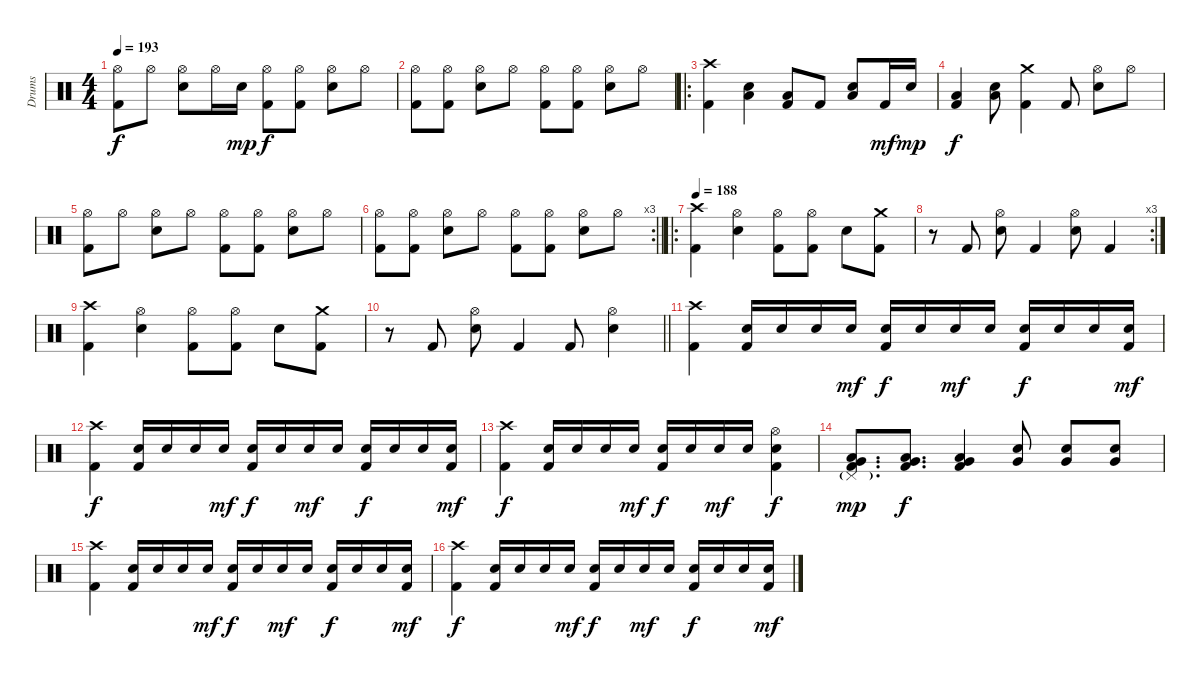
\track ("Drums" "Drums") {instrument percussion}
\staff {score}
\articulation defaults
\ts (4 4)
\tempo 193
\clef neutral
\ks c
("Hi-Hat (open)" "Kick (hit) 2").8{dy f} "Hi-Hat (open)".8 ("Hi-Hat (open)" "Electric Snare (hit)").8 "Hi-Hat (open)".16 "Electric Snare (hit)".16{dy mp} ("Hi-Hat (open)" "Kick (hit) 2").8{dy f} ("Hi-Hat (open)" "Kick (hit) 2").8 ("Hi-Hat (open)" "Electric Snare (hit)").8 "Hi-Hat (open)".8 |
("Hi-Hat (open)" "Kick (hit) 2").8 ("Hi-Hat (open)" "Kick (hit) 2").8 ("Hi-Hat (open)" "Electric Snare (hit)").8 "Hi-Hat (open)".8 ("Hi-Hat (open)" "Kick (hit) 2").8 ("Hi-Hat (open)" "Kick (hit) 2").8 ("Hi-Hat (open)" "Electric Snare (hit)").8 "Hi-Hat (open)".8 |
\ro
("Crash high (hit)" "Kick (hit) 2").4 ("Electric Snare (hit)" "Low Floor Tom (hit)").4 ("Low Floor Tom (hit)" "Kick (hit) 2").8 "Kick (hit) 2".8 ("Electric Snare (hit)" "Low Floor Tom (hit)").8 "Kick (hit) 2".16{dy mf} "Electric Snare (hit)".16{dy mp} |
("Low Floor Tom (hit)" "Kick (hit) 2").4{dy f} ("Electric Snare (hit)" "Low Floor Tom (hit)").8 ("Crash medium (hit)" "Kick (hit) 2").4 "Kick (hit) 2".8 ("Hi-Hat (open)" "Electric Snare (hit)").8 "Hi-Hat (open)".8 |
("Hi-Hat (open)" "Kick (hit) 2").8 "Hi-Hat (open)".8 ("Hi-Hat (open)" "Electric Snare (hit)").8 "Hi-Hat (open)".8 ("Hi-Hat (open)" "Kick (hit) 2").8 ("Hi-Hat (open)" "Kick (hit) 2").8 ("Hi-Hat (open)" "Electric Snare (hit)").8 "Hi-Hat (open)".8 |
\rc 3
\barLineRight lightlight
("Hi-Hat (open)" "Kick (hit) 2").8 ("Hi-Hat (open)" "Kick (hit) 2").8 ("Hi-Hat (open)" "Electric Snare (hit)").8 "Hi-Hat (open)".8 ("Hi-Hat (open)" "Kick (hit) 2").8 ("Hi-Hat (open)" "Kick (hit) 2").8 ("Hi-Hat (open)" "Electric Snare (hit)").8 "Hi-Hat (open)".8 |
\ro
\section ("" "")
\tempo 188
("Crash high (hit)" "Kick (hit) 2").4 ("Hi-Hat (open)" "Electric Snare (hit)").4 ("Hi-Hat (open)" "Kick (hit) 2").8 ("Hi-Hat (open)" "Kick (hit) 2").8 "Electric Snare (hit)".8 ("Crash medium (hit)" "Kick (hit) 2").8 |
\rc 3
r.8 "Kick (hit) 2".8 ("Hi-Hat (open)" "Electric Snare (hit)").8 "Kick (hit) 2".4 ("Hi-Hat (open)" "Electric Snare (hit)").8 "Kick (hit) 2".4 |
("Crash high (hit)" "Kick (hit) 2").4 ("Hi-Hat (open)" "Electric Snare (hit)").4 ("Hi-Hat (open)" "Kick (hit) 2").8 ("Hi-Hat (open)" "Kick (hit) 2").8 "Electric Snare (hit)".8 ("Crash medium (hit)" "Kick (hit) 2").8 |
\barLineRight lightlight
r.8 "Kick (hit) 2".8 ("Hi-Hat (open)" "Electric Snare (hit)").8 "Kick (hit) 2".4 "Kick (hit) 2".8 ("Hi-Hat (open)" "Electric Snare (hit)").4 |
\section ("" "")
("Crash high (hit)" "Kick (hit) 2").4 ("Electric Snare (hit)" "Kick (hit) 2").16 "Electric Snare (hit)".16 "Electric Snare (hit)".16 "Electric Snare (hit)".16{dy mf} ("Electric Snare (hit)" "Kick (hit) 2").16{dy f} "Electric Snare (hit)".16 "Electric Snare (hit)".16{dy mf} "Electric Snare (hit)".16 ("Electric Snare (hit)" "Kick (hit) 2").16{dy f} "Electric Snare (hit)".16 "Electric Snare (hit)".16 ("Electric Snare (hit)" "Kick (hit) 2").16{dy mf} |
("Crash high (hit)" "Kick (hit) 2").4{dy f} ("Electric Snare (hit)" "Kick (hit) 2").16 "Electric Snare (hit)".16 "Electric Snare (hit)".16 "Electric Snare (hit)".16{dy mf} ("Electric Snare (hit)" "Kick (hit) 2").16{dy f} "Electric Snare (hit)".16 "Electric Snare (hit)".16{dy mf} "Electric Snare (hit)".16 ("Electric Snare (hit)" "Kick (hit) 2").16{dy f} "Electric Snare (hit)".16 "Electric Snare (hit)".16 ("Electric Snare (hit)" "Kick (hit) 2").16{dy mf} |
("Crash high (hit)" "Kick (hit) 2").4{dy f} ("Electric Snare (hit)" "Kick (hit) 2").16 "Electric Snare (hit)".16 "Electric Snare (hit)".16 "Electric Snare (hit)".16{dy mf} ("Electric Snare (hit)" "Kick (hit) 2").16{dy f} "Electric Snare (hit)".16 "Electric Snare (hit)".16{dy mf} "Electric Snare (hit)".16 ("Hi-Hat (open)" "Electric Snare (hit)" "Kick (hit) 2").4{dy f} |
("Pedal Hi-Hat (hit)"{g} "Very Low Tom (hit)" "Low Floor Tom (hit)" "Kick (hit) 2").8{d dy mp} ("Very Low Tom (hit)" "Low Floor Tom (hit)" "Kick (hit) 2").8{d dy f} ("Very Low Tom (hit)" "Low Floor Tom (hit)" "Kick (hit) 2").4 ("Electric Snare (hit)" "Very Low Tom (hit)").8 ("Electric Snare (hit)" "Very Low Tom (hit)").8 ("Electric Snare (hit)" "Very Low Tom (hit)").8 |
("Crash high (hit)" "Kick (hit) 2").4 ("Electric Snare (hit)" "Kick (hit) 2").16 "Electric Snare (hit)".16 "Electric Snare (hit)".16 "Electric Snare (hit)".16{dy mf} ("Electric Snare (hit)" "Kick (hit) 2").16{dy f} "Electric Snare (hit)".16 "Electric Snare (hit)".16{dy mf} "Electric Snare (hit)".16 ("Electric Snare (hit)" "Kick (hit) 2").16{dy f} "Electric Snare (hit)".16 "Electric Snare (hit)".16 ("Electric Snare (hit)" "Kick (hit) 2").16{dy mf} |
("Crash high (hit)" "Kick (hit) 2").4{dy f} ("Electric Snare (hit)" "Kick (hit) 2").16 "Electric Snare (hit)".16 "Electric Snare (hit)".16 "Electric Snare (hit)".16{dy mf} ("Electric Snare (hit)" "Kick (hit) 2").16{dy f} "Electric Snare (hit)".16 "Electric Snare (hit)".16{dy mf} "Electric Snare (hit)".16 ("Electric Snare (hit)" "Kick (hit) 2").16{dy f} "Electric Snare (hit)".16 "Electric Snare (hit)".16 ("Electric Snare (hit)" "Kick (hit) 2").16{dy mf}
